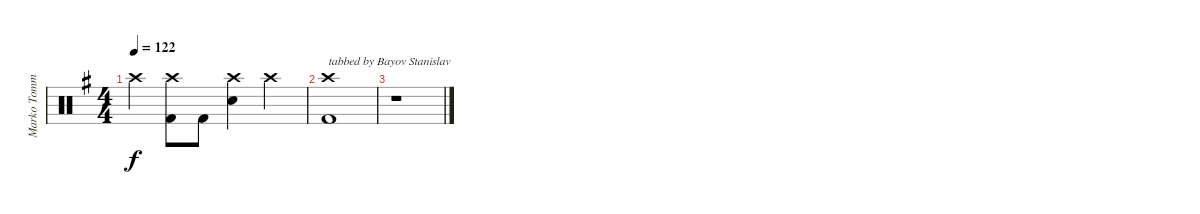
\track ("Marko Tommila (drums)" "Marko Tomm") {instrument percussion}
\staff {score}
\articulation defaults
\ts (4 4)
\tempo 122
\clef neutral
\ks eminor "Crash high (hit)".4{dy f}
("Crash high (hit)" "Kick (hit) 2").8 "Kick (hit) 2".8 ("Crash high (hit)" "Snare (hit) 2").4 "Crash high (hit)".4 |
("Crash high (hit)" "Kick (hit) 2").1{txt "tabbed by Bayov Stanislav"} |
r.1
